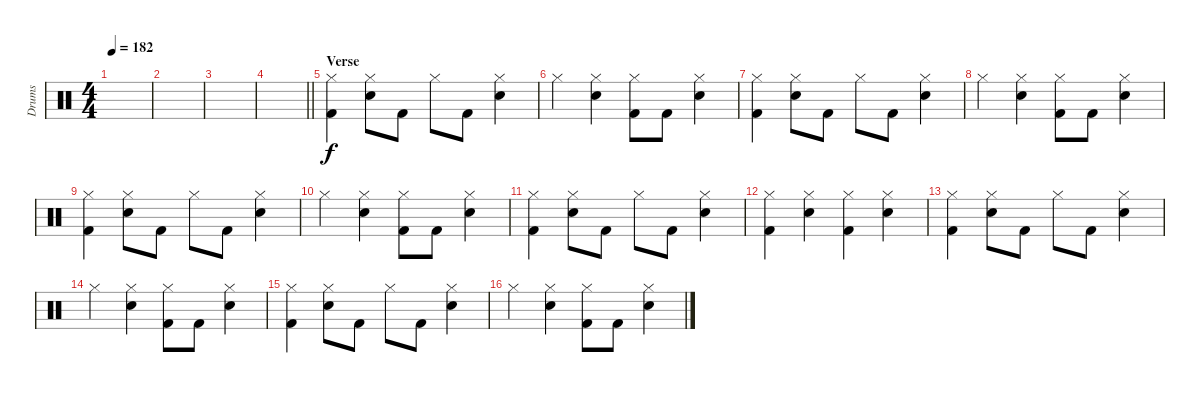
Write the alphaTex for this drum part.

\track ("Drums" "Drums") {instrument percussion}
\staff {score}
\articulation defaults
\ts (4 4)
\tempo 182
\clef neutral
\ks c
|
|
|
\barLineRight lightlight
|
\section ("" "Verse")
("Hi-Hat (closed)" "Kick (hit) 2").4 ("Hi-Hat (closed)" "Snare (hit) 2").8 "Kick (hit) 2".8 "Hi-Hat (closed)".8 "Kick (hit) 2".8 ("Hi-Hat (closed)" "Snare (hit) 2").4 |
"Hi-Hat (closed)".4 ("Hi-Hat (closed)" "Snare (hit) 2").4 ("Hi-Hat (closed)" "Kick (hit) 2").8 "Kick (hit) 2".8 ("Hi-Hat (closed)" "Snare (hit) 2").4 |
("Hi-Hat (closed)" "Kick (hit) 2").4 ("Hi-Hat (closed)" "Snare (hit) 2").8 "Kick (hit) 2".8 "Hi-Hat (closed)".8 "Kick (hit) 2".8 ("Hi-Hat (closed)" "Snare (hit) 2").4 |
"Hi-Hat (closed)".4 ("Hi-Hat (closed)" "Snare (hit) 2").4 ("Hi-Hat (closed)" "Kick (hit) 2").8 "Kick (hit) 2".8 ("Hi-Hat (closed)" "Snare (hit) 2").4 |
("Hi-Hat (closed)" "Kick (hit) 2").4 ("Hi-Hat (closed)" "Snare (hit) 2").8 "Kick (hit) 2".8 "Hi-Hat (closed)".8 "Kick (hit) 2".8 ("Hi-Hat (closed)" "Snare (hit) 2").4 |
"Hi-Hat (closed)".4 ("Hi-Hat (closed)" "Snare (hit) 2").4 ("Hi-Hat (closed)" "Kick (hit) 2").8 "Kick (hit) 2".8 ("Hi-Hat (closed)" "Snare (hit) 2").4 |
("Hi-Hat (closed)" "Kick (hit) 2").4 ("Hi-Hat (closed)" "Snare (hit) 2").8 "Kick (hit) 2".8 "Hi-Hat (closed)".8 "Kick (hit) 2".8 ("Hi-Hat (closed)" "Snare (hit) 2").4 |
("Hi-Hat (closed)" "Kick (hit) 2").4 ("Hi-Hat (closed)" "Snare (hit) 2").4 ("Hi-Hat (closed)" "Kick (hit) 2").4 ("Hi-Hat (closed)" "Snare (hit) 2").4 |
("Hi-Hat (closed)" "Kick (hit) 2").4 ("Hi-Hat (closed)" "Snare (hit) 2").8 "Kick (hit) 2".8 "Hi-Hat (closed)".8 "Kick (hit) 2".8 ("Hi-Hat (closed)" "Snare (hit) 2").4 |
"Hi-Hat (closed)".4 ("Hi-Hat (closed)" "Snare (hit) 2").4 ("Hi-Hat (closed)" "Kick (hit) 2").8 "Kick (hit) 2".8 ("Hi-Hat (closed)" "Snare (hit) 2").4 |
("Hi-Hat (closed)" "Kick (hit) 2").4 ("Hi-Hat (closed)" "Snare (hit) 2").8 "Kick (hit) 2".8 "Hi-Hat (closed)".8 "Kick (hit) 2".8 ("Hi-Hat (closed)" "Snare (hit) 2").4 |
"Hi-Hat (closed)".4 ("Hi-Hat (closed)" "Snare (hit) 2").4 ("Hi-Hat (closed)" "Kick (hit) 2").8 "Kick (hit) 2".8 ("Hi-Hat (closed)" "Snare (hit) 2").4
